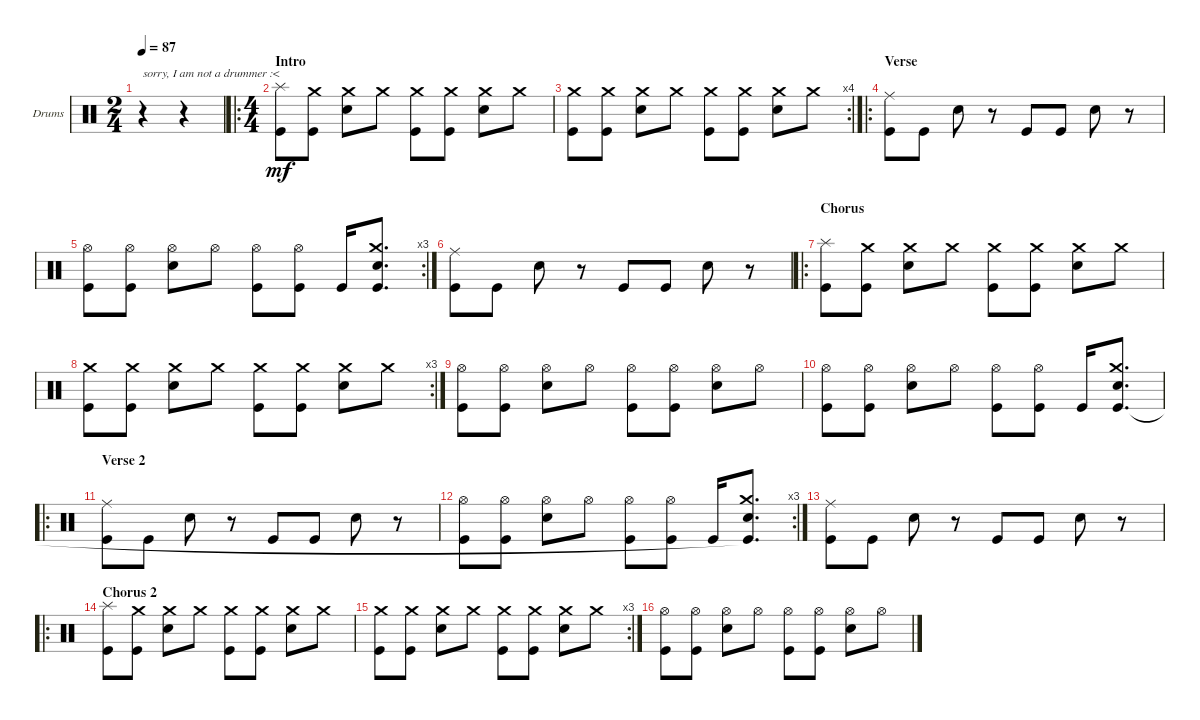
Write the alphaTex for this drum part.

\bracketExtendMode groupsimilarinstruments
\firstSystemTrackNameOrientation horizontal
\otherSystemsTrackNameOrientation horizontal
\track ("Drumkit" "Drums") {instrument percussion}
\staff {score}
\articulation defaults
\ts (2 4)
\beaming (8 2 2 2 2)
\tempo 87
\clef neutral
\ks c
r.4{txt "sorry, I am not a drummer :<" dy mf} r.4 |
\ro
\ts (4 4)
\beaming (8 2 2 2 2)
\section ("" "Intro")
("Kick (hit)" "Splash (hit)").8 ("Kick (hit)" "Crash medium (hit)").8 ("Snare (hit) 2" "Crash medium (hit)").8 "Crash medium (hit)".8 ("Kick (hit)" "Crash medium (hit)").8 ("Kick (hit)" "Crash medium (hit)").8 ("Snare (hit) 2" "Crash medium (hit)").8 "Crash medium (hit)".8 |
\rc 4
("Kick (hit)" "Crash medium (hit)").8 ("Kick (hit)" "Crash medium (hit)").8 ("Snare (hit) 2" "Crash medium (hit)").8 "Crash medium (hit)".8 ("Kick (hit)" "Crash medium (hit)").8 ("Kick (hit)" "Crash medium (hit)").8 ("Snare (hit) 2" "Crash medium (hit)").8 "Crash medium (hit)".8 |
\ro
\section ("" "Verse")
("Kick (hit)" "Ride (middle)").8 "Kick (hit)".8 "Snare (hit) 2".8 r.8 "Kick (hit)".8 "Kick (hit)".8 "Snare (hit) 2".8 r.8 |
\rc 3
("Kick (hit)" "Hi-Hat (open)").8 ("Kick (hit)" "Hi-Hat (open)").8 ("Snare (hit) 2" "Hi-Hat (open)").8 "Hi-Hat (open)".8 ("Kick (hit)" "Hi-Hat (open)").8 ("Kick (hit)" "Hi-Hat (open)").8 "Kick (hit)".16 ("Snare (hit) 2" "Crash medium (hit)" "Kick (hit)").8{d} |
("Kick (hit)" "Ride (middle)").8 "Kick (hit)".8 "Snare (hit) 2".8 r.8 "Kick (hit)".8 "Kick (hit)".8 "Snare (hit) 2".8 r.8 |
\ro
\section ("" "Chorus")
("Kick (hit)" "Splash (hit)").8 ("Kick (hit)" "Crash medium (hit)").8 ("Snare (hit) 2" "Crash medium (hit)").8 "Crash medium (hit)".8 ("Kick (hit)" "Crash medium (hit)").8 ("Kick (hit)" "Crash medium (hit)").8 ("Snare (hit) 2" "Crash medium (hit)").8 "Crash medium (hit)".8 |
\rc 3
("Kick (hit)" "Crash medium (hit)").8 ("Kick (hit)" "Crash medium (hit)").8 ("Snare (hit) 2" "Crash medium (hit)").8 "Crash medium (hit)".8 ("Kick (hit)" "Crash medium (hit)").8 ("Kick (hit)" "Crash medium (hit)").8 ("Snare (hit) 2" "Crash medium (hit)").8 "Crash medium (hit)".8 |
("Kick (hit)" "Hi-Hat (open)").8 ("Kick (hit)" "Hi-Hat (open)").8 ("Snare (hit) 2" "Hi-Hat (open)").8 "Hi-Hat (open)".8 ("Kick (hit)" "Hi-Hat (open)").8 ("Kick (hit)" "Hi-Hat (open)").8 ("Snare (hit) 2" "Hi-Hat (open)").8 "Hi-Hat (open)".8 |
("Kick (hit)" "Hi-Hat (open)").8 ("Kick (hit)" "Hi-Hat (open)").8 ("Snare (hit) 2" "Hi-Hat (open)").8 "Hi-Hat (open)".8 ("Kick (hit)" "Hi-Hat (open)").8 ("Kick (hit)" "Hi-Hat (open)").8 "Kick (hit)".16 ("Snare (hit) 2" "Crash medium (hit)" "Kick (hit)").8{d} |
\ro
\section ("" "Verse 2")
("Kick (hit)" "Ride (middle)").8 "Kick (hit)".8 "Snare (hit) 2".8 r.8 "Kick (hit)".8 "Kick (hit)".8 "Snare (hit) 2".8 r.8 |
\rc 3
("Kick (hit)" "Hi-Hat (open)").8 ("Kick (hit)" "Hi-Hat (open)").8 ("Snare (hit) 2" "Hi-Hat (open)").8 "Hi-Hat (open)".8 ("Kick (hit)" "Hi-Hat (open)").8 ("Kick (hit)" "Hi-Hat (open)").8 "Kick (hit)".16 ("Snare (hit) 2" "Crash medium (hit)" "Kick (hit)"{t}).8{d} |
("Kick (hit)" "Ride (middle)").8 "Kick (hit)".8 "Snare (hit) 2".8 r.8 "Kick (hit)".8 "Kick (hit)".8 "Snare (hit) 2".8 r.8 |
\ro
\section ("" "Chorus 2")
("Kick (hit)" "Splash (hit)").8 ("Kick (hit)" "Crash medium (hit)").8 ("Snare (hit) 2" "Crash medium (hit)").8 "Crash medium (hit)".8 ("Kick (hit)" "Crash medium (hit)").8 ("Kick (hit)" "Crash medium (hit)").8 ("Snare (hit) 2" "Crash medium (hit)").8 "Crash medium (hit)".8 |
\rc 3
("Kick (hit)" "Crash medium (hit)").8 ("Kick (hit)" "Crash medium (hit)").8 ("Snare (hit) 2" "Crash medium (hit)").8 "Crash medium (hit)".8 ("Kick (hit)" "Crash medium (hit)").8 ("Kick (hit)" "Crash medium (hit)").8 ("Snare (hit) 2" "Crash medium (hit)").8 "Crash medium (hit)".8 |
("Kick (hit)" "Hi-Hat (open)").8 ("Kick (hit)" "Hi-Hat (open)").8 ("Snare (hit) 2" "Hi-Hat (open)").8 "Hi-Hat (open)".8 ("Kick (hit)" "Hi-Hat (open)").8 ("Kick (hit)" "Hi-Hat (open)").8 ("Snare (hit) 2" "Hi-Hat (open)").8 "Hi-Hat (open)".8
